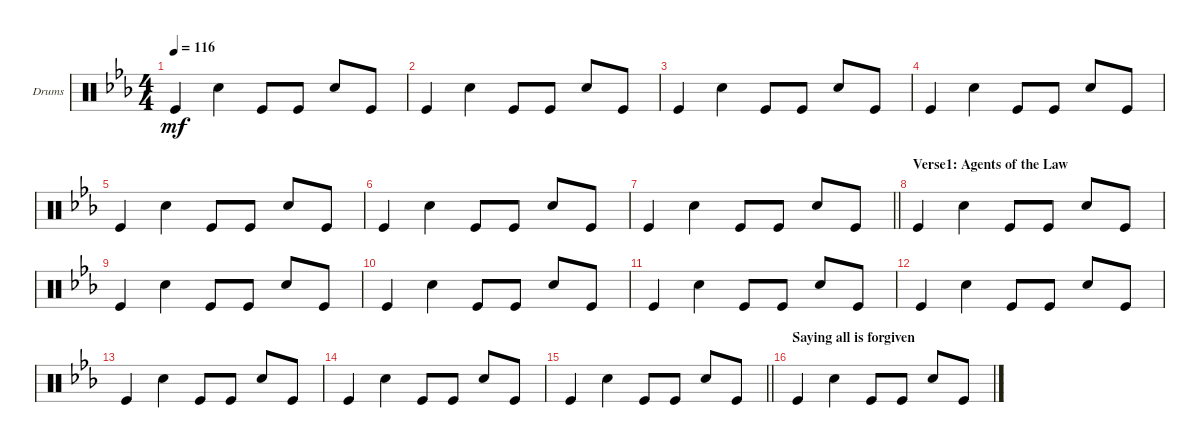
\defaultSystemsLayout 4
\bracketExtendMode groupsimilarinstruments
\firstSystemTrackNameOrientation horizontal
\otherSystemsTrackNameOrientation horizontal
\track ("Drumkit" "Drums") {instrument percussion}
\staff {score}
\articulation defaults
\ts (4 4)
\scale
0.304694
\tempo 116
\accidentals auto
\clef neutral
\ottava regular
\simile none
\ks cminor "Kick (hit)".4{dy mf} "Snare (hit) 2".4 "Kick (hit)".8 "Kick (hit)".8 "Snare (hit) 2".8 "Kick (hit)".8
|
\scale
0.300212 "Kick (hit)".4 "Snare (hit) 2".4 "Kick (hit)".8 "Kick (hit)".8 "Snare (hit) 2".8 "Kick (hit)".8 |
\scale
0.459352 "Kick (hit)".4 "Snare (hit) 2".4 "Kick (hit)".8 "Kick (hit)".8 "Snare (hit) 2".8 "Kick (hit)".8 |
\scale
0.244646 "Kick (hit)".4 "Snare (hit) 2".4 "Kick (hit)".8 "Kick (hit)".8 "Snare (hit) 2".8 "Kick (hit)".8 |
\scale
0.296091 "Kick (hit)".4 "Snare (hit) 2".4 "Kick (hit)".8 "Kick (hit)".8 "Snare (hit) 2".8 "Kick (hit)".8 |
\scale
0.317738 "Kick (hit)".4 "Snare (hit) 2".4 "Kick (hit)".8 "Kick (hit)".8 "Snare (hit) 2".8 "Kick (hit)".8 |
\scale
0.292968
\barLineRight lightlight "Kick (hit)".4 "Snare (hit) 2".4 "Kick (hit)".8 "Kick (hit)".8 "Snare (hit) 2".8 "Kick (hit)".8
|
\section ("" "Verse1: Agents of the Law")
\scale
0.206968 "Kick (hit)".4 "Snare (hit) 2".4 "Kick (hit)".8 "Kick (hit)".8 "Snare (hit) 2".8 "Kick (hit)".8 |
\scale
0.182597 "Kick (hit)".4 "Snare (hit) 2".4 "Kick (hit)".8 "Kick (hit)".8 "Snare (hit) 2".8 "Kick (hit)".8 |
\scale
0.382454 "Kick (hit)".4 "Snare (hit) 2".4 "Kick (hit)".8 "Kick (hit)".8 "Snare (hit) 2".8 "Kick (hit)".8 |
\scale
0.187963 "Kick (hit)".4 "Snare (hit) 2".4 "Kick (hit)".8 "Kick (hit)".8 "Snare (hit) 2".8 "Kick (hit)".8 |
\scale
0.252252 "Kick (hit)".4 "Snare (hit) 2".4 "Kick (hit)".8 "Kick (hit)".8 "Snare (hit) 2".8 "Kick (hit)".8 |
\scale
0.177341 "Kick (hit)".4 "Snare (hit) 2".4 "Kick (hit)".8 "Kick (hit)".8 "Snare (hit) 2".8 "Kick (hit)".8 |
"Kick (hit)".4 "Snare (hit) 2".4 "Kick (hit)".8 "Kick (hit)".8 "Snare (hit) 2".8 "Kick (hit)".8 |
\barLineRight lightlight "Kick (hit)".4 "Snare (hit) 2".4 "Kick (hit)".8 "Kick (hit)".8 "Snare (hit) 2".8 "Kick (hit)".8
|
\section ("" "Saying all is forgiven")
"Kick (hit)".4 "Snare (hit) 2".4 "Kick (hit)".8 "Kick (hit)".8 "Snare (hit) 2".8 "Kick (hit)".8
